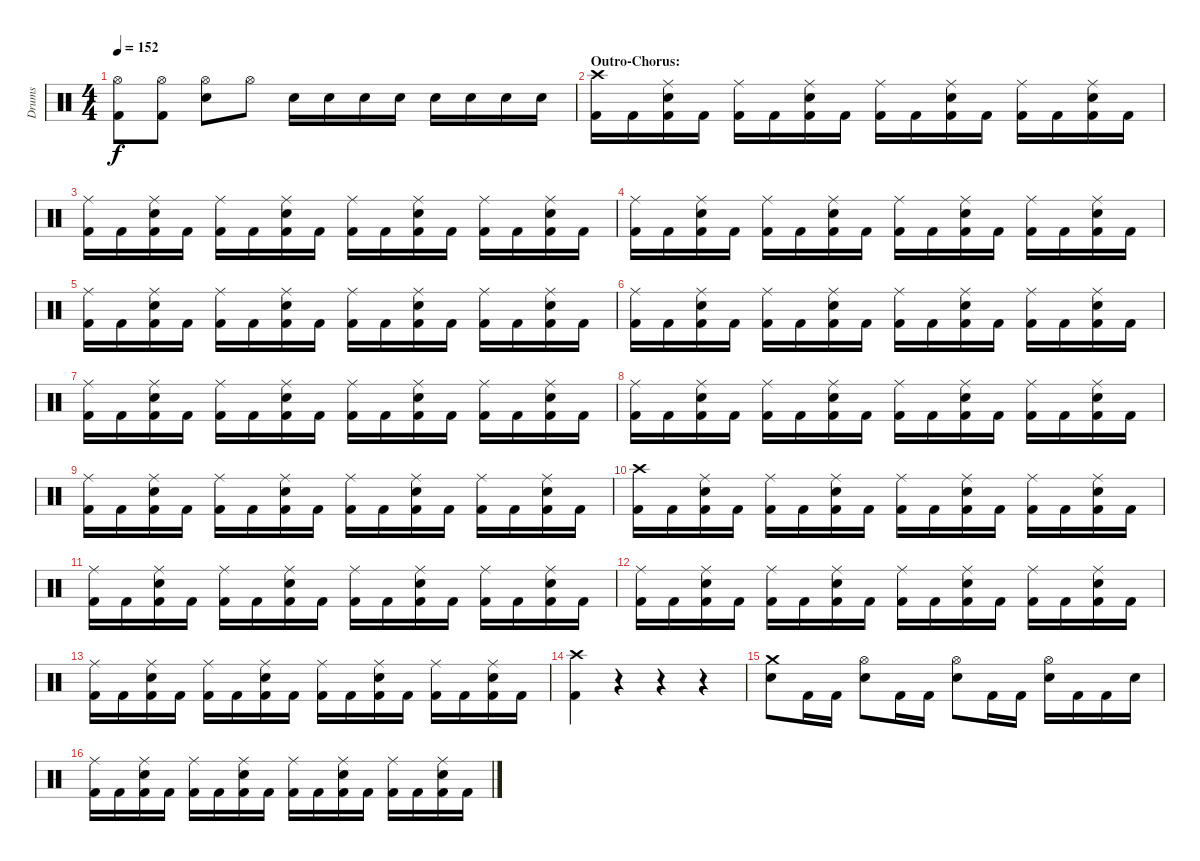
\track ("Drums" "Drums") {instrument percussion}
\staff {score}
\articulation defaults
\ts (4 4)
\tempo 152
\clef neutral
\ks c
("Hi-Hat (open)" "Kick (hit) 2").8{dy f} ("Hi-Hat (open)" "Kick (hit) 2").8 ("Hi-Hat (open)" "Electric Snare (hit)").8 "Hi-Hat (open)".8 "Electric Snare (hit)".16 "Electric Snare (hit)".16 "Electric Snare (hit)".16 "Electric Snare (hit)".16 "Electric Snare (hit)".16 "Electric Snare (hit)".16 "Electric Snare (hit)".16 "Electric Snare (hit)".16 |
\section ("" "Outro-Chorus:")
("Crash high (hit)" "Kick (hit) 2").16 "Kick (hit) 2".16 ("Ride (middle)" "Electric Snare (hit)" "Kick (hit) 2").16 "Kick (hit) 2".16 ("Ride (middle)" "Kick (hit) 2").16 "Kick (hit) 2".16 ("Ride (middle)" "Electric Snare (hit)" "Kick (hit) 2").16 "Kick (hit) 2".16 ("Ride (middle)" "Kick (hit) 2").16 "Kick (hit) 2".16 ("Ride (middle)" "Electric Snare (hit)" "Kick (hit) 2").16 "Kick (hit) 2".16 ("Ride (middle)" "Kick (hit) 2").16 "Kick (hit) 2".16 ("Ride (middle)" "Electric Snare (hit)" "Kick (hit) 2").16 "Kick (hit) 2".16 |
("Ride (middle)" "Kick (hit) 2").16 "Kick (hit) 2".16 ("Ride (middle)" "Electric Snare (hit)" "Kick (hit) 2").16 "Kick (hit) 2".16 ("Ride (middle)" "Kick (hit) 2").16 "Kick (hit) 2".16 ("Ride (middle)" "Electric Snare (hit)" "Kick (hit) 2").16 "Kick (hit) 2".16 ("Ride (middle)" "Kick (hit) 2").16 "Kick (hit) 2".16 ("Ride (middle)" "Electric Snare (hit)" "Kick (hit) 2").16 "Kick (hit) 2".16 ("Ride (middle)" "Kick (hit) 2").16 "Kick (hit) 2".16 ("Ride (middle)" "Electric Snare (hit)" "Kick (hit) 2").16 "Kick (hit) 2".16 |
("Ride (middle)" "Kick (hit) 2").16 "Kick (hit) 2".16 ("Ride (middle)" "Electric Snare (hit)" "Kick (hit) 2").16 "Kick (hit) 2".16 ("Ride (middle)" "Kick (hit) 2").16 "Kick (hit) 2".16 ("Ride (middle)" "Electric Snare (hit)" "Kick (hit) 2").16 "Kick (hit) 2".16 ("Ride (middle)" "Kick (hit) 2").16 "Kick (hit) 2".16 ("Ride (middle)" "Electric Snare (hit)" "Kick (hit) 2").16 "Kick (hit) 2".16 ("Ride (middle)" "Kick (hit) 2").16 "Kick (hit) 2".16 ("Ride (middle)" "Electric Snare (hit)" "Kick (hit) 2").16 "Kick (hit) 2".16 |
("Ride (middle)" "Kick (hit) 2").16 "Kick (hit) 2".16 ("Ride (middle)" "Electric Snare (hit)" "Kick (hit) 2").16 "Kick (hit) 2".16 ("Ride (middle)" "Kick (hit) 2").16 "Kick (hit) 2".16 ("Ride (middle)" "Electric Snare (hit)" "Kick (hit) 2").16 "Kick (hit) 2".16 ("Ride (middle)" "Kick (hit) 2").16 "Kick (hit) 2".16 ("Ride (middle)" "Electric Snare (hit)" "Kick (hit) 2").16 "Kick (hit) 2".16 ("Ride (middle)" "Kick (hit) 2").16 "Kick (hit) 2".16 ("Ride (middle)" "Electric Snare (hit)" "Kick (hit) 2").16 "Kick (hit) 2".16 |
("Ride (middle)" "Kick (hit) 2").16 "Kick (hit) 2".16 ("Ride (middle)" "Electric Snare (hit)" "Kick (hit) 2").16 "Kick (hit) 2".16 ("Ride (middle)" "Kick (hit) 2").16 "Kick (hit) 2".16 ("Ride (middle)" "Electric Snare (hit)" "Kick (hit) 2").16 "Kick (hit) 2".16 ("Ride (middle)" "Kick (hit) 2").16 "Kick (hit) 2".16 ("Ride (middle)" "Electric Snare (hit)" "Kick (hit) 2").16 "Kick (hit) 2".16 ("Ride (middle)" "Kick (hit) 2").16 "Kick (hit) 2".16 ("Ride (middle)" "Electric Snare (hit)" "Kick (hit) 2").16 "Kick (hit) 2".16 |
("Ride (middle)" "Kick (hit) 2").16 "Kick (hit) 2".16 ("Ride (middle)" "Electric Snare (hit)" "Kick (hit) 2").16 "Kick (hit) 2".16 ("Ride (middle)" "Kick (hit) 2").16 "Kick (hit) 2".16 ("Ride (middle)" "Electric Snare (hit)" "Kick (hit) 2").16 "Kick (hit) 2".16 ("Ride (middle)" "Kick (hit) 2").16 "Kick (hit) 2".16 ("Ride (middle)" "Electric Snare (hit)" "Kick (hit) 2").16 "Kick (hit) 2".16 ("Ride (middle)" "Kick (hit) 2").16 "Kick (hit) 2".16 ("Ride (middle)" "Electric Snare (hit)" "Kick (hit) 2").16 "Kick (hit) 2".16 |
("Ride (middle)" "Kick (hit) 2").16 "Kick (hit) 2".16 ("Ride (middle)" "Electric Snare (hit)" "Kick (hit) 2").16 "Kick (hit) 2".16 ("Ride (middle)" "Kick (hit) 2").16 "Kick (hit) 2".16 ("Ride (middle)" "Electric Snare (hit)" "Kick (hit) 2").16 "Kick (hit) 2".16 ("Ride (middle)" "Kick (hit) 2").16 "Kick (hit) 2".16 ("Ride (middle)" "Electric Snare (hit)" "Kick (hit) 2").16 "Kick (hit) 2".16 ("Ride (middle)" "Kick (hit) 2").16 "Kick (hit) 2".16 ("Ride (middle)" "Electric Snare (hit)" "Kick (hit) 2").16 "Kick (hit) 2".16 |
("Ride (middle)" "Kick (hit) 2").16 "Kick (hit) 2".16 ("Ride (middle)" "Electric Snare (hit)" "Kick (hit) 2").16 "Kick (hit) 2".16 ("Ride (middle)" "Kick (hit) 2").16 "Kick (hit) 2".16 ("Ride (middle)" "Electric Snare (hit)" "Kick (hit) 2").16 "Kick (hit) 2".16 ("Ride (middle)" "Kick (hit) 2").16 "Kick (hit) 2".16 ("Ride (middle)" "Electric Snare (hit)" "Kick (hit) 2").16 "Kick (hit) 2".16 ("Ride (middle)" "Kick (hit) 2").16 "Kick (hit) 2".16 ("Ride (middle)" "Electric Snare (hit)" "Kick (hit) 2").16 "Kick (hit) 2".16 |
("Crash high (hit)" "Kick (hit) 2").16 "Kick (hit) 2".16 ("Ride (middle)" "Electric Snare (hit)" "Kick (hit) 2").16 "Kick (hit) 2".16 ("Ride (middle)" "Kick (hit) 2").16 "Kick (hit) 2".16 ("Ride (middle)" "Electric Snare (hit)" "Kick (hit) 2").16 "Kick (hit) 2".16 ("Ride (middle)" "Kick (hit) 2").16 "Kick (hit) 2".16 ("Ride (middle)" "Electric Snare (hit)" "Kick (hit) 2").16 "Kick (hit) 2".16 ("Ride (middle)" "Kick (hit) 2").16 "Kick (hit) 2".16 ("Ride (middle)" "Electric Snare (hit)" "Kick (hit) 2").16 "Kick (hit) 2".16 |
("Ride (middle)" "Kick (hit) 2").16 "Kick (hit) 2".16 ("Ride (middle)" "Electric Snare (hit)" "Kick (hit) 2").16 "Kick (hit) 2".16 ("Ride (middle)" "Kick (hit) 2").16 "Kick (hit) 2".16 ("Ride (middle)" "Electric Snare (hit)" "Kick (hit) 2").16 "Kick (hit) 2".16 ("Ride (middle)" "Kick (hit) 2").16 "Kick (hit) 2".16 ("Ride (middle)" "Electric Snare (hit)" "Kick (hit) 2").16 "Kick (hit) 2".16 ("Ride (middle)" "Kick (hit) 2").16 "Kick (hit) 2".16 ("Ride (middle)" "Electric Snare (hit)" "Kick (hit) 2").16 "Kick (hit) 2".16 |
("Ride (middle)" "Kick (hit) 2").16 "Kick (hit) 2".16 ("Ride (middle)" "Electric Snare (hit)" "Kick (hit) 2").16 "Kick (hit) 2".16 ("Ride (middle)" "Kick (hit) 2").16 "Kick (hit) 2".16 ("Ride (middle)" "Electric Snare (hit)" "Kick (hit) 2").16 "Kick (hit) 2".16 ("Ride (middle)" "Kick (hit) 2").16 "Kick (hit) 2".16 ("Ride (middle)" "Electric Snare (hit)" "Kick (hit) 2").16 "Kick (hit) 2".16 ("Ride (middle)" "Kick (hit) 2").16 "Kick (hit) 2".16 ("Ride (middle)" "Electric Snare (hit)" "Kick (hit) 2").16 "Kick (hit) 2".16 |
("Ride (middle)" "Kick (hit) 2").16 "Kick (hit) 2".16 ("Ride (middle)" "Electric Snare (hit)" "Kick (hit) 2").16 "Kick (hit) 2".16 ("Ride (middle)" "Kick (hit) 2").16 "Kick (hit) 2".16 ("Ride (middle)" "Electric Snare (hit)" "Kick (hit) 2").16 "Kick (hit) 2".16 ("Ride (middle)" "Kick (hit) 2").16 "Kick (hit) 2".16 ("Ride (middle)" "Electric Snare (hit)" "Kick (hit) 2").16 "Kick (hit) 2".16 ("Ride (middle)" "Kick (hit) 2").16 "Kick (hit) 2".16 ("Ride (middle)" "Electric Snare (hit)" "Kick (hit) 2").16 "Kick (hit) 2".16 |
("Crash high (hit)" "Kick (hit) 2").4 r.4 r.4 r.4 |
("Crash medium (hit)" "Electric Snare (hit)").8 "Kick (hit) 2".16 "Kick (hit) 2".16 ("Hi-Hat (open)" "Electric Snare (hit)").8 "Kick (hit) 2".16 "Kick (hit) 2".16 ("Hi-Hat (open)" "Electric Snare (hit)").8 "Kick (hit) 2".16 "Kick (hit) 2".16 ("Hi-Hat (open)" "Electric Snare (hit)").16 "Kick (hit) 2".16 "Kick (hit) 2".16 "Electric Snare (hit)".16 |
("Ride (middle)" "Kick (hit) 2").16 "Kick (hit) 2".16 ("Ride (middle)" "Electric Snare (hit)" "Kick (hit) 2").16 "Kick (hit) 2".16 ("Ride (middle)" "Kick (hit) 2").16 "Kick (hit) 2".16 ("Ride (middle)" "Electric Snare (hit)" "Kick (hit) 2").16 "Kick (hit) 2".16 ("Ride (middle)" "Kick (hit) 2").16 "Kick (hit) 2".16 ("Ride (middle)" "Electric Snare (hit)" "Kick (hit) 2").16 "Kick (hit) 2".16 ("Ride (middle)" "Kick (hit) 2").16 "Kick (hit) 2".16 ("Ride (middle)" "Electric Snare (hit)" "Kick (hit) 2").16 "Kick (hit) 2".16
